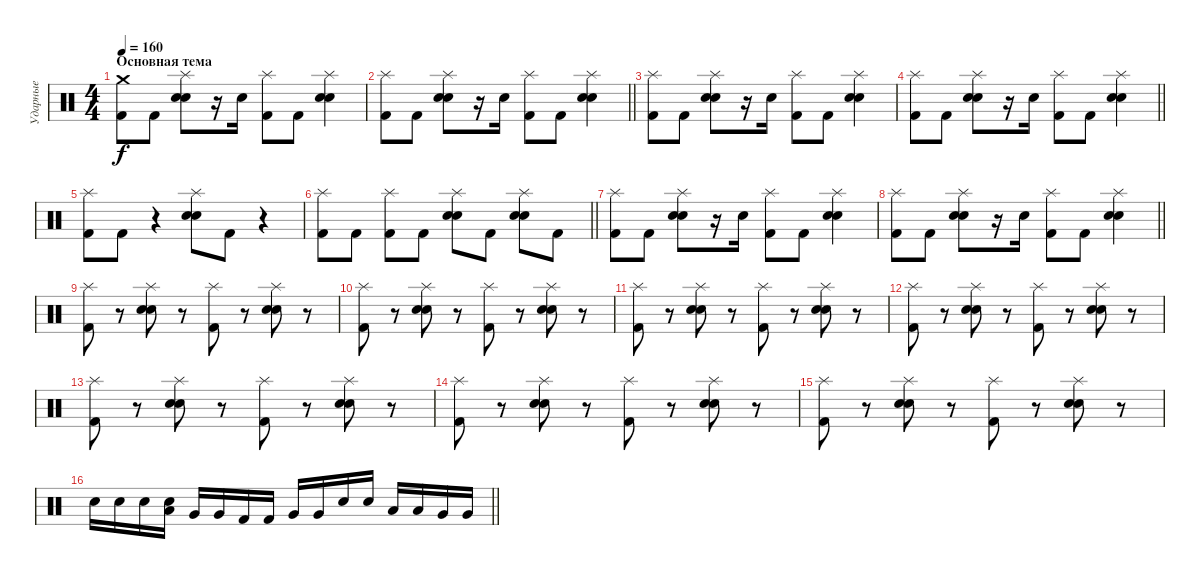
\track ("Ударные" "Ударные") {instrument percussion}
\staff {score}
\articulation defaults
\ts (4 4)
\section ("" "Основная тема")
\tempo 160
\clef neutral
\ks c
("Crash medium (hit)" "Kick (hit) 2").8{dy f} "Kick (hit) 2".8 ("Splash (hit)" "Electric Snare (hit)" "Snare (hit) 2").8 r.16 "Electric Snare (hit)".16 ("Splash (hit)" "Kick (hit) 2").8 "Kick (hit) 2".8 ("Splash (hit)" "Electric Snare (hit)" "Snare (hit) 2").4 |
\barLineRight lightlight
("Splash (hit)" "Kick (hit) 2").8 "Kick (hit) 2".8 ("Splash (hit)" "Electric Snare (hit)" "Snare (hit) 2").8 r.16 "Electric Snare (hit)".16 ("Splash (hit)" "Kick (hit) 2").8 "Kick (hit) 2".8 ("Splash (hit)" "Electric Snare (hit)" "Snare (hit) 2").4 |
("Splash (hit)" "Kick (hit) 2").8 "Kick (hit) 2".8 ("Splash (hit)" "Electric Snare (hit)" "Snare (hit) 2").8 r.16 "Electric Snare (hit)".16 ("Splash (hit)" "Kick (hit) 2").8 "Kick (hit) 2".8 ("Splash (hit)" "Electric Snare (hit)" "Snare (hit) 2").4 |
\barLineRight lightlight
("Splash (hit)" "Kick (hit) 2").8 "Kick (hit) 2".8 ("Splash (hit)" "Electric Snare (hit)" "Snare (hit) 2").8 r.16 "Electric Snare (hit)".16 ("Splash (hit)" "Kick (hit) 2").8 "Kick (hit) 2".8 ("Splash (hit)" "Electric Snare (hit)" "Snare (hit) 2").4 |
("Splash (hit)" "Kick (hit) 2").8 "Kick (hit) 2".8 r.4 ("Splash (hit)" "Electric Snare (hit)" "Snare (hit) 2").8 "Kick (hit) 2".8 r.4 |
\barLineRight lightlight
("Splash (hit)" "Kick (hit) 2").8 "Kick (hit) 2".8 ("Splash (hit)" "Kick (hit) 2").8 "Kick (hit) 2".8 ("Splash (hit)" "Electric Snare (hit)" "Snare (hit) 2").8 "Kick (hit) 2".8 ("Splash (hit)" "Electric Snare (hit)" "Snare (hit) 2").8 "Kick (hit) 2".8 |
("Splash (hit)" "Kick (hit) 2").8 "Kick (hit) 2".8 ("Splash (hit)" "Electric Snare (hit)" "Snare (hit) 2").8 r.16 "Electric Snare (hit)".16 ("Splash (hit)" "Kick (hit) 2").8 "Kick (hit) 2".8 ("Splash (hit)" "Electric Snare (hit)" "Snare (hit) 2").4 |
\barLineRight lightlight
("Splash (hit)" "Kick (hit) 2").8 "Kick (hit) 2".8 ("Splash (hit)" "Electric Snare (hit)" "Snare (hit) 2").8 r.16 "Electric Snare (hit)".16 ("Splash (hit)" "Kick (hit) 2").8 "Kick (hit) 2".8 ("Splash (hit)" "Electric Snare (hit)" "Snare (hit) 2").4 |
("Splash (hit)" "Kick (hit) 2").8 r.8 ("Splash (hit)" "Electric Snare (hit)" "Snare (hit) 2").8 r.8 ("Splash (hit)" "Kick (hit) 2").8 r.8 ("Splash (hit)" "Electric Snare (hit)" "Snare (hit) 2").8 r.8 |
("Splash (hit)" "Kick (hit) 2").8 r.8 ("Splash (hit)" "Electric Snare (hit)" "Snare (hit) 2").8 r.8 ("Splash (hit)" "Kick (hit) 2").8 r.8 ("Splash (hit)" "Electric Snare (hit)" "Snare (hit) 2").8 r.8 |
("Splash (hit)" "Kick (hit) 2").8 r.8 ("Splash (hit)" "Electric Snare (hit)" "Snare (hit) 2").8 r.8 ("Splash (hit)" "Kick (hit) 2").8 r.8 ("Splash (hit)" "Electric Snare (hit)" "Snare (hit) 2").8 r.8 |
("Splash (hit)" "Kick (hit) 2").8 r.8 ("Splash (hit)" "Electric Snare (hit)" "Snare (hit) 2").8 r.8 ("Splash (hit)" "Kick (hit) 2").8 r.8 ("Splash (hit)" "Electric Snare (hit)" "Snare (hit) 2").8 r.8 |
("Splash (hit)" "Kick (hit) 2").8 r.8 ("Splash (hit)" "Electric Snare (hit)" "Snare (hit) 2").8 r.8 ("Splash (hit)" "Kick (hit) 2").8 r.8 ("Splash (hit)" "Electric Snare (hit)" "Snare (hit) 2").8 r.8 |
("Splash (hit)" "Kick (hit) 2").8 r.8 ("Splash (hit)" "Electric Snare (hit)" "Snare (hit) 2").8 r.8 ("Splash (hit)" "Kick (hit) 2").8 r.8 ("Splash (hit)" "Electric Snare (hit)" "Snare (hit) 2").8 r.8 |
("Splash (hit)" "Kick (hit) 2").8 r.8 ("Splash (hit)" "Electric Snare (hit)" "Snare (hit) 2").8 r.8 ("Splash (hit)" "Kick (hit) 2").8 r.8 ("Splash (hit)" "Electric Snare (hit)" "Snare (hit) 2").8 r.8 |
\barLineRight lightlight "Electric Snare (hit)".16 "Electric Snare (hit)".16 "Electric Snare (hit)".16
("Electric Snare (hit)" "Low Tom (hit)").16 "Very Low Tom (hit)".16 "Very Low Tom (hit)".16 "Kick (hit) 2".16 "Kick (hit) 2".16 "Very Low Tom (hit)".16 "Very Low Tom (hit)".16 "Snare (hit) 2".16 "Snare (hit) 2".16 "Low Tom (hit)".16 "Low Tom (hit)".16 "Very Low Tom (hit)".16 "Very Low Tom (hit)".16
